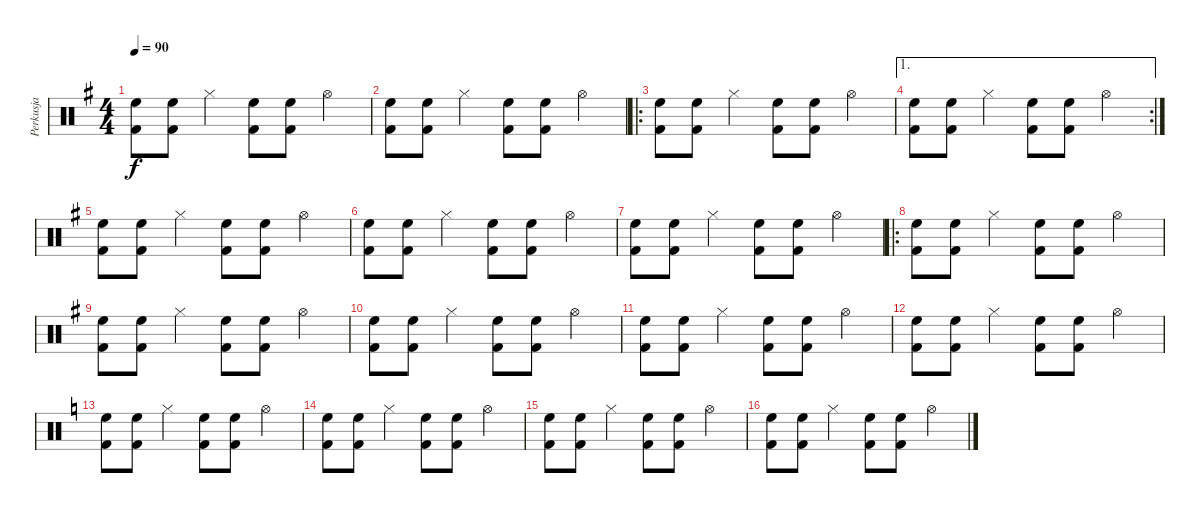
\track ("Perkusja" "Perkusja") {instrument percussion}
\staff {score}
\articulation defaults
\ts (4 4)
\tempo 90
\clef neutral
\ks g
("Kick (hit) 2" "High Floor Tom (hit)").8{dy f} ("Kick (hit) 2" "High Floor Tom (hit)").8 "Hi-Hat (closed)".4 ("Kick (hit) 2" "High Floor Tom (hit)").8 ("Kick (hit) 2" "High Floor Tom (hit)").8 "Hi-Hat (open)".4 |
("Kick (hit) 2" "High Floor Tom (hit)").8 ("Kick (hit) 2" "High Floor Tom (hit)").8 "Hi-Hat (closed)".4 ("Kick (hit) 2" "High Floor Tom (hit)").8 ("Kick (hit) 2" "High Floor Tom (hit)").8 "Hi-Hat (open)".4 |
\ro
("Kick (hit) 2" "High Floor Tom (hit)").8 ("Kick (hit) 2" "High Floor Tom (hit)").8 "Hi-Hat (closed)".4 ("Kick (hit) 2" "High Floor Tom (hit)").8 ("Kick (hit) 2" "High Floor Tom (hit)").8 "Hi-Hat (open)".4 |
\ae 1
\rc 2
("Kick (hit) 2" "High Floor Tom (hit)").8 ("Kick (hit) 2" "High Floor Tom (hit)").8 "Hi-Hat (closed)".4 ("Kick (hit) 2" "High Floor Tom (hit)").8 ("Kick (hit) 2" "High Floor Tom (hit)").8 "Hi-Hat (open)".4 |
("Kick (hit) 2" "High Floor Tom (hit)").8 ("Kick (hit) 2" "High Floor Tom (hit)").8 "Hi-Hat (closed)".4 ("Kick (hit) 2" "High Floor Tom (hit)").8 ("Kick (hit) 2" "High Floor Tom (hit)").8 "Hi-Hat (open)".4 |
("Kick (hit) 2" "High Floor Tom (hit)").8 ("Kick (hit) 2" "High Floor Tom (hit)").8 "Hi-Hat (closed)".4 ("Kick (hit) 2" "High Floor Tom (hit)").8 ("Kick (hit) 2" "High Floor Tom (hit)").8 "Hi-Hat (open)".4 |
("Kick (hit) 2" "High Floor Tom (hit)").8 ("Kick (hit) 2" "High Floor Tom (hit)").8 "Hi-Hat (closed)".4 ("Kick (hit) 2" "High Floor Tom (hit)").8 ("Kick (hit) 2" "High Floor Tom (hit)").8 "Hi-Hat (open)".4 |
\ro
("Kick (hit) 2" "High Floor Tom (hit)").8 ("Kick (hit) 2" "High Floor Tom (hit)").8 "Hi-Hat (closed)".4 ("Kick (hit) 2" "High Floor Tom (hit)").8 ("Kick (hit) 2" "High Floor Tom (hit)").8 "Hi-Hat (open)".4 |
("Kick (hit) 2" "High Floor Tom (hit)").8 ("Kick (hit) 2" "High Floor Tom (hit)").8 "Hi-Hat (closed)".4 ("Kick (hit) 2" "High Floor Tom (hit)").8 ("Kick (hit) 2" "High Floor Tom (hit)").8 "Hi-Hat (open)".4 |
("Kick (hit) 2" "High Floor Tom (hit)").8 ("Kick (hit) 2" "High Floor Tom (hit)").8 "Hi-Hat (closed)".4 ("Kick (hit) 2" "High Floor Tom (hit)").8 ("Kick (hit) 2" "High Floor Tom (hit)").8 "Hi-Hat (open)".4 |
("Kick (hit) 2" "High Floor Tom (hit)").8 ("Kick (hit) 2" "High Floor Tom (hit)").8 "Hi-Hat (closed)".4 ("Kick (hit) 2" "High Floor Tom (hit)").8 ("Kick (hit) 2" "High Floor Tom (hit)").8 "Hi-Hat (open)".4 |
("Kick (hit) 2" "High Floor Tom (hit)").8 ("Kick (hit) 2" "High Floor Tom (hit)").8 "Hi-Hat (closed)".4 ("Kick (hit) 2" "High Floor Tom (hit)").8 ("Kick (hit) 2" "High Floor Tom (hit)").8 "Hi-Hat (open)".4 |
\ks c
("Kick (hit) 2" "High Floor Tom (hit)").8 ("Kick (hit) 2" "High Floor Tom (hit)").8 "Hi-Hat (closed)".4 ("Kick (hit) 2" "High Floor Tom (hit)").8 ("Kick (hit) 2" "High Floor Tom (hit)").8 "Hi-Hat (open)".4 |
("Kick (hit) 2" "High Floor Tom (hit)").8 ("Kick (hit) 2" "High Floor Tom (hit)").8 "Hi-Hat (closed)".4 ("Kick (hit) 2" "High Floor Tom (hit)").8 ("Kick (hit) 2" "High Floor Tom (hit)").8 "Hi-Hat (open)".4 |
("Kick (hit) 2" "High Floor Tom (hit)").8 ("Kick (hit) 2" "High Floor Tom (hit)").8 "Hi-Hat (closed)".4 ("Kick (hit) 2" "High Floor Tom (hit)").8 ("Kick (hit) 2" "High Floor Tom (hit)").8 "Hi-Hat (open)".4 |
("Kick (hit) 2" "High Floor Tom (hit)").8 ("Kick (hit) 2" "High Floor Tom (hit)").8 "Hi-Hat (closed)".4 ("Kick (hit) 2" "High Floor Tom (hit)").8 ("Kick (hit) 2" "High Floor Tom (hit)").8 "Hi-Hat (open)".4
